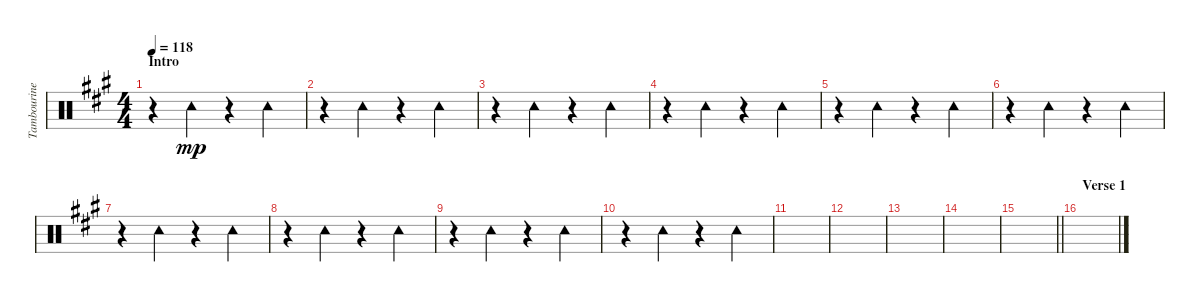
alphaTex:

\track ("Tambourine" "Tambourine") {instrument percussion}
\staff {score}
\articulation defaults
\ts (4 4)
\section ("" "Intro")
\tempo 118
\clef neutral
\ks a
r.4{dy mp} "Tambourine (hit)".4 r.4 "Tambourine (hit)".4 |
r.4 "Tambourine (hit)".4 r.4 "Tambourine (hit)".4 |
r.4 "Tambourine (hit)".4 r.4 "Tambourine (hit)".4 |
r.4 "Tambourine (hit)".4 r.4 "Tambourine (hit)".4 |
r.4 "Tambourine (hit)".4 r.4 "Tambourine (hit)".4 |
r.4 "Tambourine (hit)".4 r.4 "Tambourine (hit)".4 |
r.4 "Tambourine (hit)".4 r.4 "Tambourine (hit)".4 |
r.4 "Tambourine (hit)".4 r.4 "Tambourine (hit)".4 |
r.4 "Tambourine (hit)".4 r.4 "Tambourine (hit)".4 |
r.4 "Tambourine (hit)".4 r.4 "Tambourine (hit)".4 |
|
|
|
|
\barLineRight lightlight
|
\section ("" "Verse 1")
